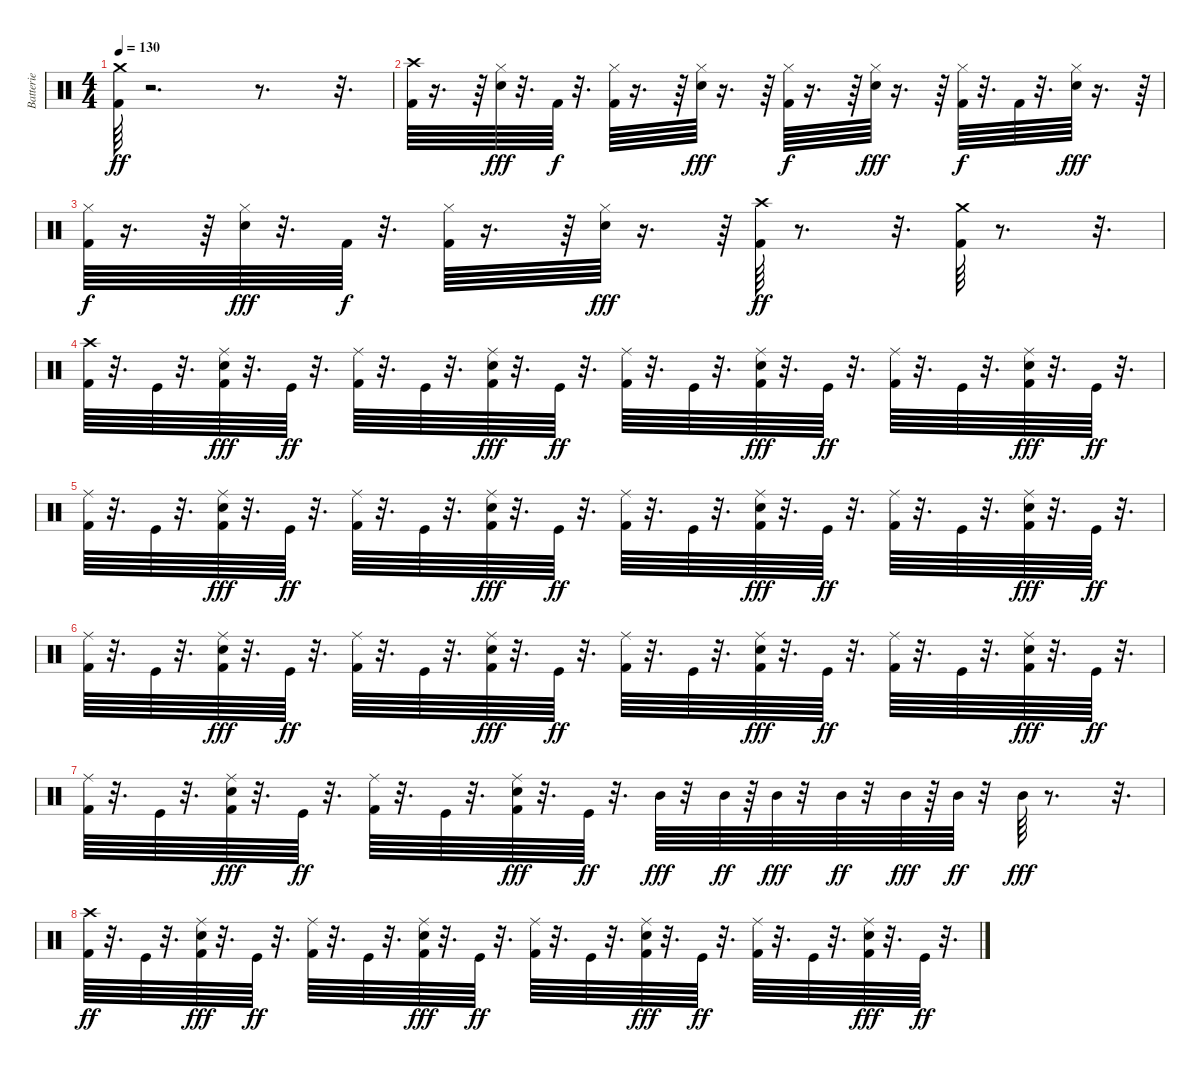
\track ("Batterie" "Batterie") {instrument percussion}
\staff {score}
\articulation defaults
\ts (4 4)
\tempo 130
\clef neutral
\ks c
("Kick (hit) 2" "Crash medium (hit)").64{dy ff} r.2{d} r.8{d} r.32{d} |
("Kick (hit) 2" "Crash high (hit)").64 r.16{d} r.64 ("Hi-Hat (closed)" "Snare (hit) 2").64{dy fff} r.32{d} "Kick (hit) 2".64{dy f} r.32{d} ("Kick (hit) 2" "Hi-Hat (closed)").64 r.16{d} r.64 ("Hi-Hat (closed)" "Snare (hit) 2").64{dy fff} r.16{d} r.64 ("Kick (hit) 2" "Hi-Hat (closed)").64{dy f} r.16{d} r.64 ("Hi-Hat (closed)" "Snare (hit) 2").64{dy fff} r.16{d} r.64 ("Kick (hit) 2" "Hi-Hat (closed)").64{dy f} r.32{d} "Kick (hit) 2".64 r.32{d} ("Hi-Hat (closed)" "Snare (hit) 2").64{dy fff} r.16{d} r.64 |
("Kick (hit) 2" "Hi-Hat (closed)").64{dy f} r.16{d} r.64 ("Hi-Hat (closed)" "Snare (hit) 2").64{dy fff} r.32{d} "Kick (hit) 2".64{dy f} r.32{d} ("Kick (hit) 2" "Hi-Hat (closed)").64 r.16{d} r.64 ("Hi-Hat (closed)" "Snare (hit) 2").64{dy fff} r.16{d} r.64 ("Kick (hit) 2" "Crash high (hit)").64{dy ff} r.8{d} r.32{d} ("Crash medium (hit)" "Kick (hit) 2").64 r.8{d} r.32{d} |
("Crash high (hit)" "Kick (hit) 2").64 r.32{d} "Kick (hit)".64 r.32{d} ("Kick (hit) 2" "Snare (hit) 2" "Ride (middle)").64{dy fff} r.32{d} "Kick (hit)".64{dy ff} r.32{d} ("Kick (hit) 2" "Ride (middle)").64 r.32{d} "Kick (hit)".64 r.32{d} ("Kick (hit) 2" "Snare (hit) 2" "Ride (middle)").64{dy fff} r.32{d} "Kick (hit)".64{dy ff} r.32{d} ("Kick (hit) 2" "Ride (middle)").64 r.32{d} "Kick (hit)".64 r.32{d} ("Kick (hit) 2" "Snare (hit) 2" "Ride (middle)").64{dy fff} r.32{d} "Kick (hit)".64{dy ff} r.32{d} ("Kick (hit) 2" "Ride (middle)").64 r.32{d} "Kick (hit)".64 r.32{d} ("Kick (hit) 2" "Snare (hit) 2" "Ride (middle)").64{dy fff} r.32{d} "Kick (hit)".64{dy ff} r.32{d} |
("Kick (hit) 2" "Ride (middle)").64 r.32{d} "Kick (hit)".64 r.32{d} ("Kick (hit) 2" "Snare (hit) 2" "Ride (middle)").64{dy fff} r.32{d} "Kick (hit)".64{dy ff} r.32{d} ("Kick (hit) 2" "Ride (middle)").64 r.32{d} "Kick (hit)".64 r.32{d} ("Kick (hit) 2" "Snare (hit) 2" "Ride (middle)").64{dy fff} r.32{d} "Kick (hit)".64{dy ff} r.32{d} ("Kick (hit) 2" "Ride (middle)").64 r.32{d} "Kick (hit)".64 r.32{d} ("Kick (hit) 2" "Snare (hit) 2" "Ride (middle)").64{dy fff} r.32{d} "Kick (hit)".64{dy ff} r.32{d} ("Kick (hit) 2" "Ride (middle)").64 r.32{d} "Kick (hit)".64 r.32{d} ("Kick (hit) 2" "Snare (hit) 2" "Ride (middle)").64{dy fff} r.32{d} "Kick (hit)".64{dy ff} r.32{d} |
("Kick (hit) 2" "Ride (middle)").64 r.32{d} "Kick (hit)".64 r.32{d} ("Kick (hit) 2" "Snare (hit) 2" "Ride (middle)").64{dy fff} r.32{d} "Kick (hit)".64{dy ff} r.32{d} ("Kick (hit) 2" "Ride (middle)").64 r.32{d} "Kick (hit)".64 r.32{d} ("Kick (hit) 2" "Snare (hit) 2" "Ride (middle)").64{dy fff} r.32{d} "Kick (hit)".64{dy ff} r.32{d} ("Kick (hit) 2" "Ride (middle)").64 r.32{d} "Kick (hit)".64 r.32{d} ("Kick (hit) 2" "Snare (hit) 2" "Ride (middle)").64{dy fff} r.32{d} "Kick (hit)".64{dy ff} r.32{d} ("Kick (hit) 2" "Ride (middle)").64 r.32{d} "Kick (hit)".64 r.32{d} ("Kick (hit) 2" "Snare (hit) 2" "Ride (middle)").64{dy fff} r.32{d} "Kick (hit)".64{dy ff} r.32{d} |
("Kick (hit) 2" "Ride (middle)").64 r.32{d} "Kick (hit)".64 r.32{d} ("Kick (hit) 2" "Snare (hit) 2" "Ride (middle)").64{dy fff} r.32{d} "Kick (hit)".64{dy ff} r.32{d} ("Kick (hit) 2" "Ride (middle)").64 r.32{d} "Kick (hit)".64 r.32{d} ("Kick (hit) 2" "Snare (hit) 2" "Ride (middle)").64{dy fff} r.32{d} "Kick (hit)".64{dy ff} r.32{d} "Mid Tom (hit)".64{dy fff} r.32 "Mid Tom (hit)".64{dy ff} r.64 "Mid Tom (hit)".64{dy fff} r.32 "Mid Tom (hit)".64{dy ff} r.32 "Mid Tom (hit)".64{dy fff} r.64 "Mid Tom (hit)".64{dy ff} r.32 "Mid Tom (hit)".64{dy fff} r.8{d} r.32{d} |
("Crash high (hit)" "Kick (hit) 2").64{dy ff} r.32{d} "Kick (hit)".64 r.32{d} ("Kick (hit) 2" "Snare (hit) 2" "Ride (middle)").64{dy fff} r.32{d} "Kick (hit)".64{dy ff} r.32{d} ("Kick (hit) 2" "Ride (middle)").64 r.32{d} "Kick (hit)".64 r.32{d} ("Kick (hit) 2" "Snare (hit) 2" "Ride (middle)").64{dy fff} r.32{d} "Kick (hit)".64{dy ff} r.32{d} ("Kick (hit) 2" "Ride (middle)").64 r.32{d} "Kick (hit)".64 r.32{d} ("Kick (hit) 2" "Snare (hit) 2" "Ride (middle)").64{dy fff} r.32{d} "Kick (hit)".64{dy ff} r.32{d} ("Kick (hit) 2" "Ride (middle)").64 r.32{d} "Kick (hit)".64 r.32{d} ("Kick (hit) 2" "Snare (hit) 2" "Ride (middle)").64{dy fff} r.32{d} "Kick (hit)".64{dy ff} r.32{d}
